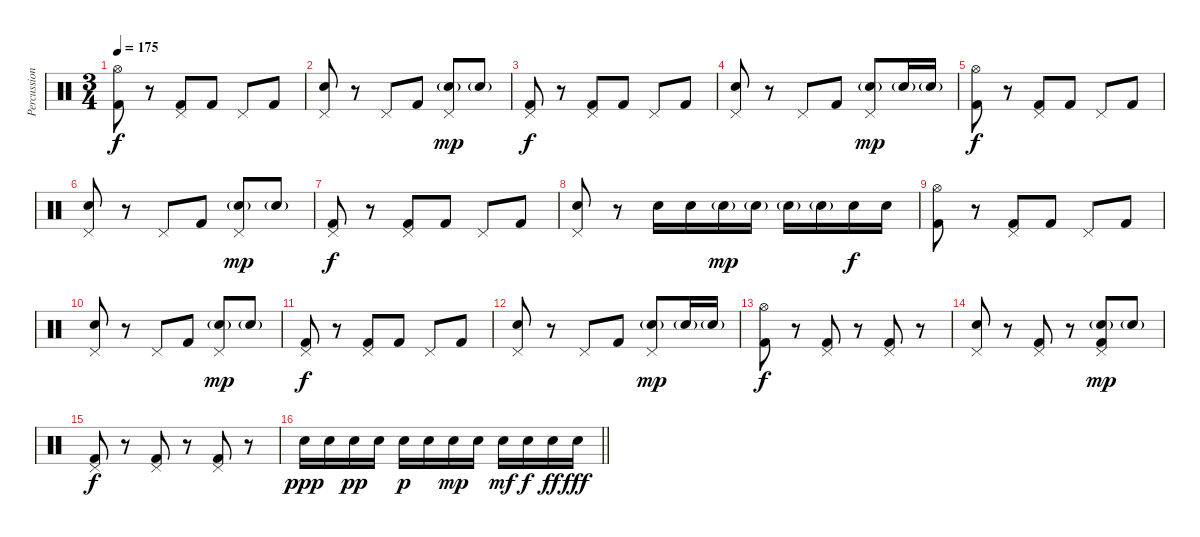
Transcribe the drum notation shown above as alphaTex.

\track ("Percussion" "Percussion") {instrument percussion}
\staff {score}
\articulation defaults
\ts (3 4)
\tempo 175
\clef neutral
\ks c
("Hi-Hat (open)" "Kick (hit) 2").8{dy f} r.8 ("Pedal Hi-Hat (hit)" "Kick (hit) 2").8 "Kick (hit) 2".8 "Pedal Hi-Hat (hit)".8 "Kick (hit) 2".8 |
("Pedal Hi-Hat (hit)" "Electric Snare (hit)").8 r.8 "Pedal Hi-Hat (hit)".8 "Kick (hit) 2".8 ("Pedal Hi-Hat (hit)" "Electric Snare (hit)"{g}).8{dy mp} "Electric Snare (hit)"{g}.8 |
("Pedal Hi-Hat (hit)" "Kick (hit) 2").8{dy f} r.8 ("Pedal Hi-Hat (hit)" "Kick (hit) 2").8 "Kick (hit) 2".8 "Pedal Hi-Hat (hit)".8 "Kick (hit) 2".8 |
("Pedal Hi-Hat (hit)" "Electric Snare (hit)").8 r.8 "Pedal Hi-Hat (hit)".8 "Kick (hit) 2".8 ("Pedal Hi-Hat (hit)" "Electric Snare (hit)"{g}).8{dy mp} "Electric Snare (hit)"{g}.16 "Electric Snare (hit)"{g}.16 |
("Hi-Hat (open)" "Kick (hit) 2").8{dy f} r.8 ("Pedal Hi-Hat (hit)" "Kick (hit) 2").8 "Kick (hit) 2".8 "Pedal Hi-Hat (hit)".8 "Kick (hit) 2".8 |
("Pedal Hi-Hat (hit)" "Electric Snare (hit)").8 r.8 "Pedal Hi-Hat (hit)".8 "Kick (hit) 2".8 ("Pedal Hi-Hat (hit)" "Electric Snare (hit)"{g}).8{dy mp} "Electric Snare (hit)"{g}.8 |
("Pedal Hi-Hat (hit)" "Kick (hit) 2").8{dy f} r.8 ("Pedal Hi-Hat (hit)" "Kick (hit) 2").8 "Kick (hit) 2".8 "Pedal Hi-Hat (hit)".8 "Kick (hit) 2".8 |
("Pedal Hi-Hat (hit)" "Electric Snare (hit)").8 r.8 "Electric Snare (hit)".16 "Electric Snare (hit)".16 "Electric Snare (hit)"{g}.16{dy mp} "Electric Snare (hit)"{g}.16 "Electric Snare (hit)"{g}.16 "Electric Snare (hit)"{g}.16 "Electric Snare (hit)".16{dy f} "Electric Snare (hit)".16 |
("Hi-Hat (open)" "Kick (hit) 2").8 r.8 ("Pedal Hi-Hat (hit)" "Kick (hit) 2").8 "Kick (hit) 2".8 "Pedal Hi-Hat (hit)".8 "Kick (hit) 2".8 |
("Pedal Hi-Hat (hit)" "Electric Snare (hit)").8 r.8 "Pedal Hi-Hat (hit)".8 "Kick (hit) 2".8 ("Pedal Hi-Hat (hit)" "Electric Snare (hit)"{g}).8{dy mp} "Electric Snare (hit)"{g}.8 |
("Pedal Hi-Hat (hit)" "Kick (hit) 2").8{dy f} r.8 ("Pedal Hi-Hat (hit)" "Kick (hit) 2").8 "Kick (hit) 2".8 "Pedal Hi-Hat (hit)".8 "Kick (hit) 2".8 |
("Pedal Hi-Hat (hit)" "Electric Snare (hit)").8 r.8 "Pedal Hi-Hat (hit)".8 "Kick (hit) 2".8 ("Pedal Hi-Hat (hit)" "Electric Snare (hit)"{g}).8{dy mp} "Electric Snare (hit)"{g}.16 "Electric Snare (hit)"{g}.16 |
("Hi-Hat (open)" "Kick (hit) 2").8{dy f} r.8 ("Pedal Hi-Hat (hit)" "Kick (hit) 2").8 r.8 ("Pedal Hi-Hat (hit)" "Kick (hit) 2").8 r.8 |
("Pedal Hi-Hat (hit)" "Electric Snare (hit)").8 r.8 ("Pedal Hi-Hat (hit)" "Kick (hit) 2").8 r.8 ("Pedal Hi-Hat (hit)" "Electric Snare (hit)"{g} "Kick (hit) 2").8{dy mp} "Electric Snare (hit)"{g}.8 |
("Pedal Hi-Hat (hit)" "Kick (hit) 2").8{dy f} r.8 ("Pedal Hi-Hat (hit)" "Kick (hit) 2").8 r.8 ("Pedal Hi-Hat (hit)" "Kick (hit) 2").8 r.8 |
\barLineRight lightlight "Electric Snare (hit)".16{dy ppp} "Electric Snare (hit)".16 "Electric Snare (hit)".16{dy pp} "Electric Snare (hit)".16 "Electric Snare (hit)".16{dy p} "Electric Snare (hit)".16 "Electric Snare (hit)".16{dy mp} "Electric Snare (hit)".16 "Electric Snare (hit)".16{dy mf} "Electric Snare (hit)".16{dy f} "Electric Snare (hit)".16{dy ff} "Electric Snare (hit)".16{dy fff}
